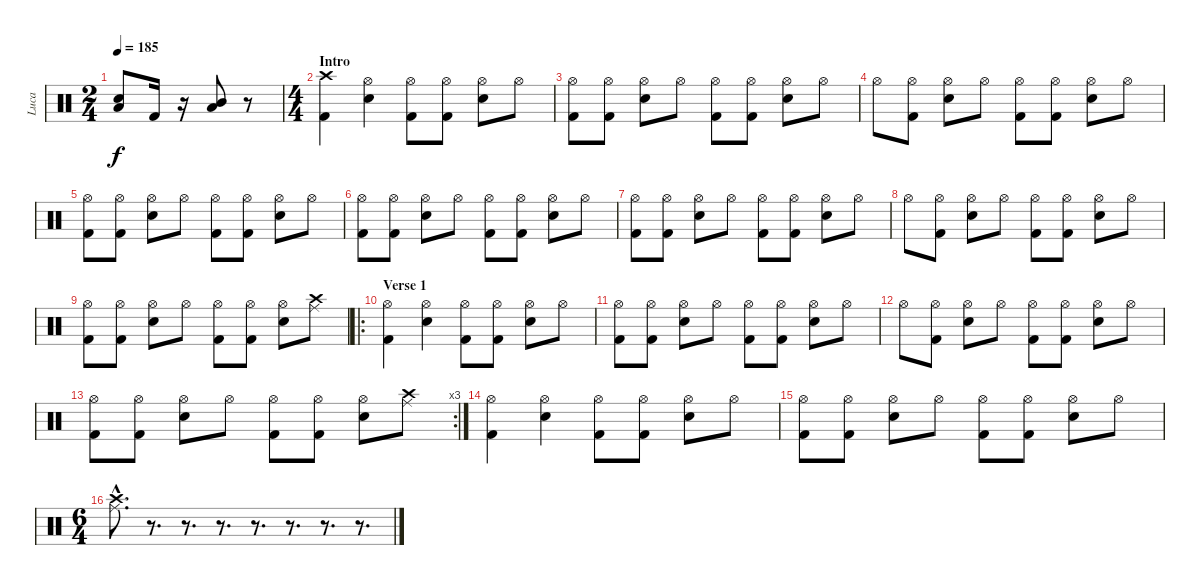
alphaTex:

\track ("Luca" "Luca") {instrument percussion}
\staff {score}
\articulation defaults
\ts (2 4)
\tempo 185
\clef neutral
\ks c
("Snare (hit) 2" "Low Floor Tom (hit)").8{dy f} "Kick (hit) 2".16 r.16 ("Low Tom (hit)" "Mid Tom (hit)").8 r.8 |
\ts (4 4)
\section ("" "Intro")
("Crash high (hit)" "Kick (hit) 2").4 ("Hi-Hat (open)" "Snare (hit) 2").4 ("Hi-Hat (open)" "Kick (hit) 2").8 ("Hi-Hat (open)" "Kick (hit) 2").8 ("Hi-Hat (open)" "Snare (hit) 2").8 "Hi-Hat (open)".8 |
("Hi-Hat (open)" "Kick (hit) 2").8 ("Hi-Hat (open)" "Kick (hit) 2").8 ("Hi-Hat (open)" "Snare (hit) 2").8 "Hi-Hat (open)".8 ("Hi-Hat (open)" "Kick (hit) 2").8 ("Hi-Hat (open)" "Kick (hit) 2").8 ("Hi-Hat (open)" "Snare (hit) 2").8 "Hi-Hat (open)".8 |
"Hi-Hat (open)".8 ("Hi-Hat (open)" "Kick (hit) 2").8 ("Hi-Hat (open)" "Snare (hit) 2").8 "Hi-Hat (open)".8 ("Hi-Hat (open)" "Kick (hit) 2").8 ("Hi-Hat (open)" "Kick (hit) 2").8 ("Hi-Hat (open)" "Snare (hit) 2").8 "Hi-Hat (open)".8 |
("Hi-Hat (open)" "Kick (hit) 2").8 ("Hi-Hat (open)" "Kick (hit) 2").8 ("Hi-Hat (open)" "Snare (hit) 2").8 "Hi-Hat (open)".8 ("Hi-Hat (open)" "Kick (hit) 2").8 ("Hi-Hat (open)" "Kick (hit) 2").8 ("Hi-Hat (open)" "Snare (hit) 2").8 "Hi-Hat (open)".8 |
("Hi-Hat (open)" "Kick (hit) 2").8 ("Hi-Hat (open)" "Kick (hit) 2").8 ("Hi-Hat (open)" "Snare (hit) 2").8 "Hi-Hat (open)".8 ("Hi-Hat (open)" "Kick (hit) 2").8 ("Hi-Hat (open)" "Kick (hit) 2").8 ("Hi-Hat (open)" "Snare (hit) 2").8 "Hi-Hat (open)".8 |
("Hi-Hat (open)" "Kick (hit) 2").8 ("Hi-Hat (open)" "Kick (hit) 2").8 ("Hi-Hat (open)" "Snare (hit) 2").8 "Hi-Hat (open)".8 ("Hi-Hat (open)" "Kick (hit) 2").8 ("Hi-Hat (open)" "Kick (hit) 2").8 ("Hi-Hat (open)" "Snare (hit) 2").8 "Hi-Hat (open)".8 |
"Hi-Hat (open)".8 ("Hi-Hat (open)" "Kick (hit) 2").8 ("Hi-Hat (open)" "Snare (hit) 2").8 "Hi-Hat (open)".8 ("Hi-Hat (open)" "Kick (hit) 2").8 ("Hi-Hat (open)" "Kick (hit) 2").8 ("Hi-Hat (open)" "Snare (hit) 2").8 "Hi-Hat (open)".8 |
("Hi-Hat (open)" "Kick (hit) 2").8 ("Hi-Hat (open)" "Kick (hit) 2").8 ("Hi-Hat (open)" "Snare (hit) 2").8 "Hi-Hat (open)".8 ("Hi-Hat (open)" "Kick (hit) 2").8 ("Hi-Hat (open)" "Kick (hit) 2").8 ("Hi-Hat (open)" "Snare (hit) 2").8 ("Crash high (hit)" "Ride (middle)").8 |
\ro
\section ("" "Verse 1")
("Hi-Hat (open)" "Kick (hit) 2").4 ("Hi-Hat (open)" "Snare (hit) 2").4 ("Hi-Hat (open)" "Kick (hit) 2").8 ("Hi-Hat (open)" "Kick (hit) 2").8 ("Hi-Hat (open)" "Snare (hit) 2").8 "Hi-Hat (open)".8 |
("Hi-Hat (open)" "Kick (hit) 2").8 ("Hi-Hat (open)" "Kick (hit) 2").8 ("Hi-Hat (open)" "Snare (hit) 2").8 "Hi-Hat (open)".8 ("Hi-Hat (open)" "Kick (hit) 2").8 ("Hi-Hat (open)" "Kick (hit) 2").8 ("Hi-Hat (open)" "Snare (hit) 2").8 "Hi-Hat (open)".8 |
"Hi-Hat (open)".8 ("Hi-Hat (open)" "Kick (hit) 2").8 ("Hi-Hat (open)" "Snare (hit) 2").8 "Hi-Hat (open)".8 ("Hi-Hat (open)" "Kick (hit) 2").8 ("Hi-Hat (open)" "Kick (hit) 2").8 ("Hi-Hat (open)" "Snare (hit) 2").8 "Hi-Hat (open)".8 |
\rc 3
("Hi-Hat (open)" "Kick (hit) 2").8 ("Hi-Hat (open)" "Kick (hit) 2").8 ("Hi-Hat (open)" "Snare (hit) 2").8 "Hi-Hat (open)".8 ("Hi-Hat (open)" "Kick (hit) 2").8 ("Hi-Hat (open)" "Kick (hit) 2").8 ("Hi-Hat (open)" "Snare (hit) 2").8 ("Crash high (hit)" "Ride (middle)").8 |
("Hi-Hat (open)" "Kick (hit) 2").4 ("Hi-Hat (open)" "Snare (hit) 2").4 ("Hi-Hat (open)" "Kick (hit) 2").8 ("Hi-Hat (open)" "Kick (hit) 2").8 ("Hi-Hat (open)" "Snare (hit) 2").8 "Hi-Hat (open)".8 |
("Hi-Hat (open)" "Kick (hit) 2").8 ("Hi-Hat (open)" "Kick (hit) 2").8 ("Hi-Hat (open)" "Snare (hit) 2").8 "Hi-Hat (open)".8 ("Hi-Hat (open)" "Kick (hit) 2").8 ("Hi-Hat (open)" "Kick (hit) 2").8 ("Hi-Hat (open)" "Snare (hit) 2").8 "Hi-Hat (open)".8 |
\ts (6 4)
("Crash high (hit)"{hac} "Ride (middle)"{hac}).8{d} r.8{d} r.8{d} r.8{d} r.8{d} r.8{d} r.8{d} r.8{d}
